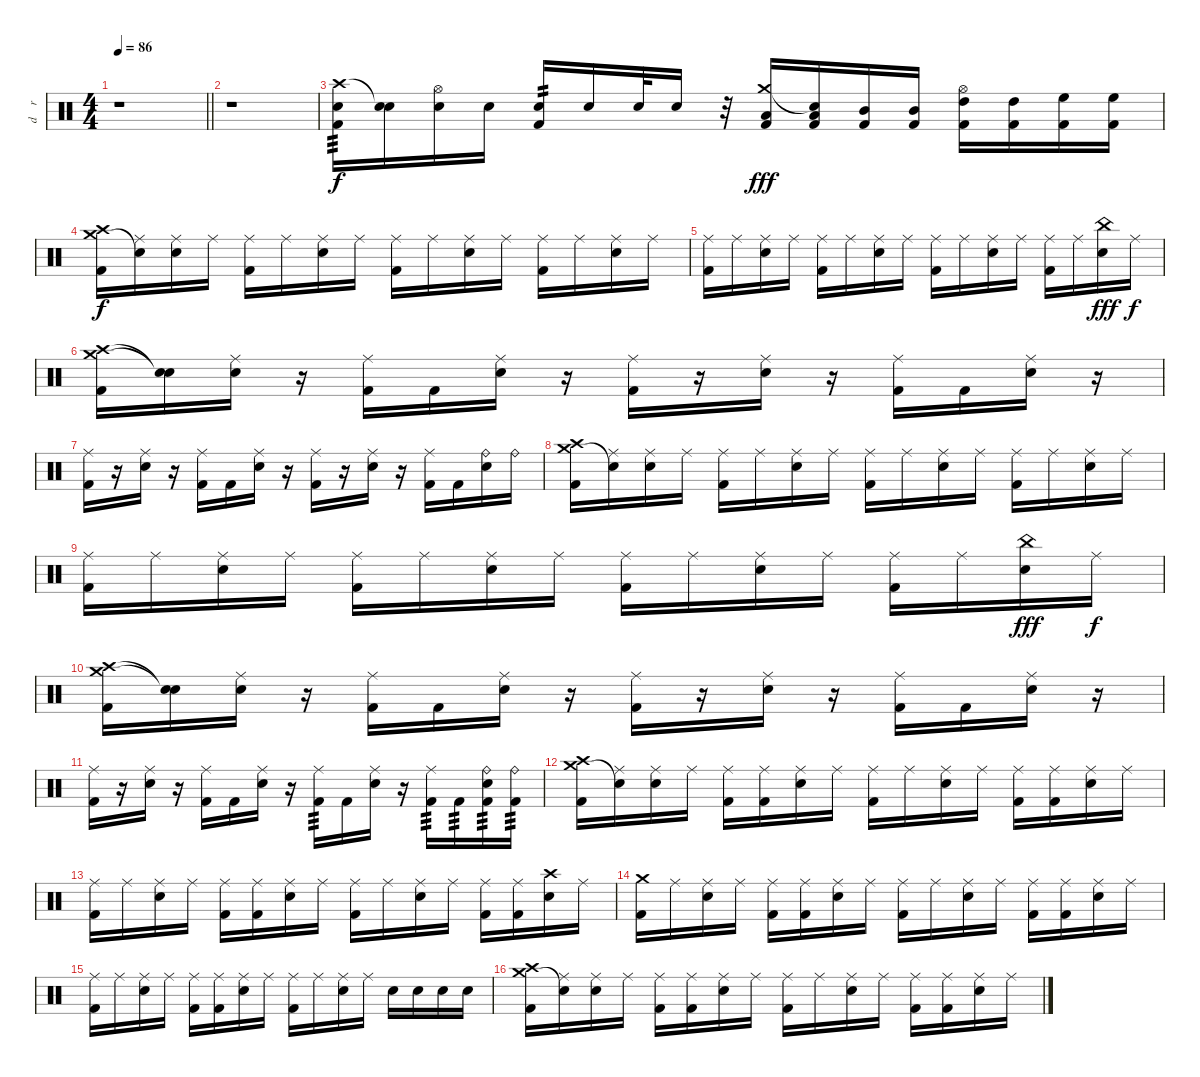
\track ("d    r     u    m    s" "d    r    ") {instrument percussion}
\staff {score}
\articulation defaults
\ts (4 4)
\tempo 86
\clef neutral
\barLineRight lightlight
\ks c
r.1{dy f} |
r.1 |
("Crash high (hit)" "Electric Snare (hit)" "Kick (hit) 2").16{tp 3} ("Snare (hit)"{t} "Electric Snare (hit)").16 ("Hi-Hat (open)" "Electric Snare (hit)").16 "Electric Snare (hit)".16 ("Electric Snare (hit)" "Kick (hit) 2").16{tp 2} "Electric Snare (hit)".16 "Electric Snare (hit)".32 "Electric Snare (hit)".16 r.32 ("Crash medium (hit)" "Low Tom (hit)" "Kick (hit) 2").16{dy fff} ("Snare (hit)"{t} "Low Tom (hit)" "Kick (hit) 2").16 ("Mid Tom (hit)" "Kick (hit) 2").16 ("Mid Tom (hit)" "Kick (hit) 2").16 ("Hi-Hat (open)" "High Tom (hit)" "Kick (hit) 2").16 ("High Tom (hit)" "Kick (hit) 2").16 ("High Floor Tom (hit)" "Kick (hit) 2").16 ("High Floor Tom (hit)" "Kick (hit) 2").16 |
("Crash high (hit)" "Crash medium (hit)" "Kick (hit) 2").16{dy f} ("Ride (middle)" "Snare (hit)"{t}).16 ("Ride (middle)" "Electric Snare (hit)").16 "Ride (middle)".16 ("Ride (middle)" "Kick (hit) 2").16 "Ride (middle)".16 ("Ride (middle)" "Electric Snare (hit)").16 "Ride (middle)".16 ("Ride (middle)" "Kick (hit) 2").16 "Ride (middle)".16 ("Ride (middle)" "Electric Snare (hit)").16 "Ride (middle)".16 ("Ride (middle)" "Kick (hit) 2").16 "Ride (middle)".16 ("Ride (middle)" "Electric Snare (hit)").16 "Ride (middle)".16 |
("Ride (middle)" "Kick (hit) 2").16 "Ride (middle)".16 ("Ride (middle)" "Electric Snare (hit)").16 "Ride (middle)".16 ("Ride (middle)" "Kick (hit) 2").16 "Ride (middle)".16 ("Ride (middle)" "Electric Snare (hit)").16 "Ride (middle)".16 ("Ride (middle)" "Kick (hit) 2").16 "Ride (middle)".16 ("Ride (middle)" "Electric Snare (hit)").16 "Ride (middle)".16 ("Ride (middle)" "Kick (hit) 2").16 "Ride (middle)".16 ("China (hit)" "Electric Snare (hit)").16{dy fff} "Ride (middle)".16{dy f} |
("Crash high (hit)" "Crash medium (hit)" "Kick (hit) 2").16 ("Snare (hit)"{t} "Snare (hit)"{t}).16 ("Ride (middle)" "Electric Snare (hit)").16 r.16 ("Ride (middle)" "Kick (hit) 2").16 "Kick (hit) 2".16 ("Ride (middle)" "Electric Snare (hit)").16 r.16 ("Ride (middle)" "Kick (hit) 2").16 r.16 ("Ride (middle)" "Electric Snare (hit)").16 r.16 ("Ride (middle)" "Kick (hit) 2").16 "Kick (hit) 2".16 ("Ride (middle)" "Electric Snare (hit)").16 r.16 |
("Ride (middle)" "Kick (hit) 2").16 r.16 ("Ride (middle)" "Electric Snare (hit)").16 r.16 ("Ride (middle)" "Kick (hit) 2").16 "Kick (hit) 2".16 ("Ride (middle)" "Electric Snare (hit)").16 r.16 ("Ride (middle)" "Kick (hit) 2").16 r.16 ("Ride (middle)" "Electric Snare (hit)").16 r.16 ("Ride (middle)" "Kick (hit) 2").16 "Kick (hit) 2".16 ("Ride (bell)" "Electric Snare (hit)").16 "Ride (bell)".16 |
("Crash high (hit)" "Crash medium (hit)" "Kick (hit) 2").16 ("Ride (middle)" "Snare (hit)"{t}).16 ("Ride (middle)" "Electric Snare (hit)").16 "Ride (middle)".16 ("Ride (middle)" "Kick (hit) 2").16 "Ride (middle)".16 ("Ride (middle)" "Electric Snare (hit)").16 "Ride (middle)".16 ("Ride (middle)" "Kick (hit) 2").16 "Ride (middle)".16 ("Ride (middle)" "Electric Snare (hit)").16 "Ride (middle)".16 ("Ride (middle)" "Kick (hit) 2").16 "Ride (middle)".16 ("Ride (middle)" "Electric Snare (hit)").16 "Ride (middle)".16 |
("Ride (middle)" "Kick (hit) 2").16 "Ride (middle)".16 ("Ride (middle)" "Electric Snare (hit)").16 "Ride (middle)".16 ("Ride (middle)" "Kick (hit) 2").16 "Ride (middle)".16 ("Ride (middle)" "Electric Snare (hit)").16 "Ride (middle)".16 ("Ride (middle)" "Kick (hit) 2").16 "Ride (middle)".16 ("Ride (middle)" "Electric Snare (hit)").16 "Ride (middle)".16 ("Ride (middle)" "Kick (hit) 2").16 "Ride (middle)".16 ("China (hit)" "Electric Snare (hit)").16{dy fff} "Ride (middle)".16{dy f} |
("Crash high (hit)" "Crash medium (hit)" "Kick (hit) 2").16 ("Snare (hit)"{t} "Snare (hit)"{t}).16 ("Ride (middle)" "Electric Snare (hit)").16 r.16 ("Ride (middle)" "Kick (hit) 2").16 "Kick (hit) 2".16 ("Ride (middle)" "Electric Snare (hit)").16 r.16 ("Ride (middle)" "Kick (hit) 2").16 r.16 ("Ride (middle)" "Electric Snare (hit)").16 r.16 ("Ride (middle)" "Kick (hit) 2").16 "Kick (hit) 2".16 ("Ride (middle)" "Electric Snare (hit)").16 r.16 |
("Ride (middle)" "Kick (hit) 2").16 r.16 ("Ride (middle)" "Electric Snare (hit)").16 r.16 ("Ride (middle)" "Kick (hit) 2").16 "Kick (hit) 2".16 ("Ride (middle)" "Electric Snare (hit)").16 r.16 ("Ride (middle)" "Kick (hit) 2").16{tp 3} "Kick (hit) 2".16 ("Ride (middle)" "Electric Snare (hit)").16 r.16 ("Ride (middle)" "Kick (hit) 2").16{tp 3} "Kick (hit) 2".16{tp 3} ("Ride (bell)" "Electric Snare (hit)" "Kick (hit) 2").16{tp 3} ("Ride (bell)" "Kick (hit) 2").16{tp 3} |
("Crash high (hit)" "Crash medium (hit)" "Kick (hit) 2").16 ("Ride (middle)" "Snare (hit)"{t}).16 ("Ride (middle)" "Electric Snare (hit)").16 "Ride (middle)".16 ("Ride (middle)" "Kick (hit) 2").16 ("Ride (middle)" "Kick (hit) 2").16 ("Ride (middle)" "Electric Snare (hit)").16 "Ride (middle)".16 ("Ride (middle)" "Kick (hit) 2").16 "Ride (middle)".16 ("Ride (middle)" "Electric Snare (hit)").16 "Ride (middle)".16 ("Ride (middle)" "Kick (hit) 2").16 ("Ride (middle)" "Kick (hit) 2").16 ("Ride (middle)" "Electric Snare (hit)").16 "Ride (middle)".16 |
("Ride (middle)" "Kick (hit) 2").16 "Ride (middle)".16 ("Ride (middle)" "Electric Snare (hit)").16 "Ride (middle)".16 ("Ride (middle)" "Kick (hit) 2").16 ("Ride (middle)" "Kick (hit) 2").16 ("Ride (middle)" "Electric Snare (hit)").16 "Ride (middle)".16 ("Ride (middle)" "Kick (hit) 2").16 "Ride (middle)".16 ("Ride (middle)" "Electric Snare (hit)").16 "Ride (middle)".16 ("Ride (middle)" "Kick (hit) 2").16 ("Ride (middle)" "Kick (hit) 2").16 ("Crash high (hit)" "Electric Snare (hit)").16 "Ride (middle)".16 |
("Crash medium (hit)" "Kick (hit) 2").16 "Ride (middle)".16 ("Ride (middle)" "Electric Snare (hit)").16 "Ride (middle)".16 ("Ride (middle)" "Kick (hit) 2").16 ("Ride (middle)" "Kick (hit) 2").16 ("Ride (middle)" "Electric Snare (hit)").16 "Ride (middle)".16 ("Ride (middle)" "Kick (hit) 2").16 "Ride (middle)".16 ("Ride (middle)" "Electric Snare (hit)").16 "Ride (middle)".16 ("Ride (middle)" "Kick (hit) 2").16 ("Ride (middle)" "Kick (hit) 2").16 ("Ride (middle)" "Electric Snare (hit)").16 "Ride (middle)".16 |
("Ride (middle)" "Kick (hit) 2").16 "Ride (middle)".16 ("Ride (middle)" "Electric Snare (hit)").16 "Ride (middle)".16 ("Ride (middle)" "Kick (hit) 2").16 ("Ride (middle)" "Kick (hit) 2").16 ("Ride (middle)" "Electric Snare (hit)").16 "Ride (middle)".16 ("Ride (middle)" "Kick (hit) 2").16 "Ride (middle)".16 ("Ride (middle)" "Electric Snare (hit)").16 "Ride (middle)".16 "Electric Snare (hit)".16 "Electric Snare (hit)".16 "Electric Snare (hit)".16 "Electric Snare (hit)".16 |
("Crash high (hit)" "Crash medium (hit)" "Kick (hit) 2").16 ("Ride (middle)" "Snare (hit)"{t}).16 ("Ride (middle)" "Electric Snare (hit)").16 "Ride (middle)".16 ("Ride (middle)" "Kick (hit) 2").16 ("Ride (middle)" "Kick (hit) 2").16 ("Ride (middle)" "Electric Snare (hit)").16 "Ride (middle)".16 ("Ride (middle)" "Kick (hit) 2").16 "Ride (middle)".16 ("Ride (middle)" "Electric Snare (hit)").16 "Ride (middle)".16 ("Ride (middle)" "Kick (hit) 2").16 ("Ride (middle)" "Kick (hit) 2").16 ("Ride (middle)" "Electric Snare (hit)").16 "Ride (middle)".16
